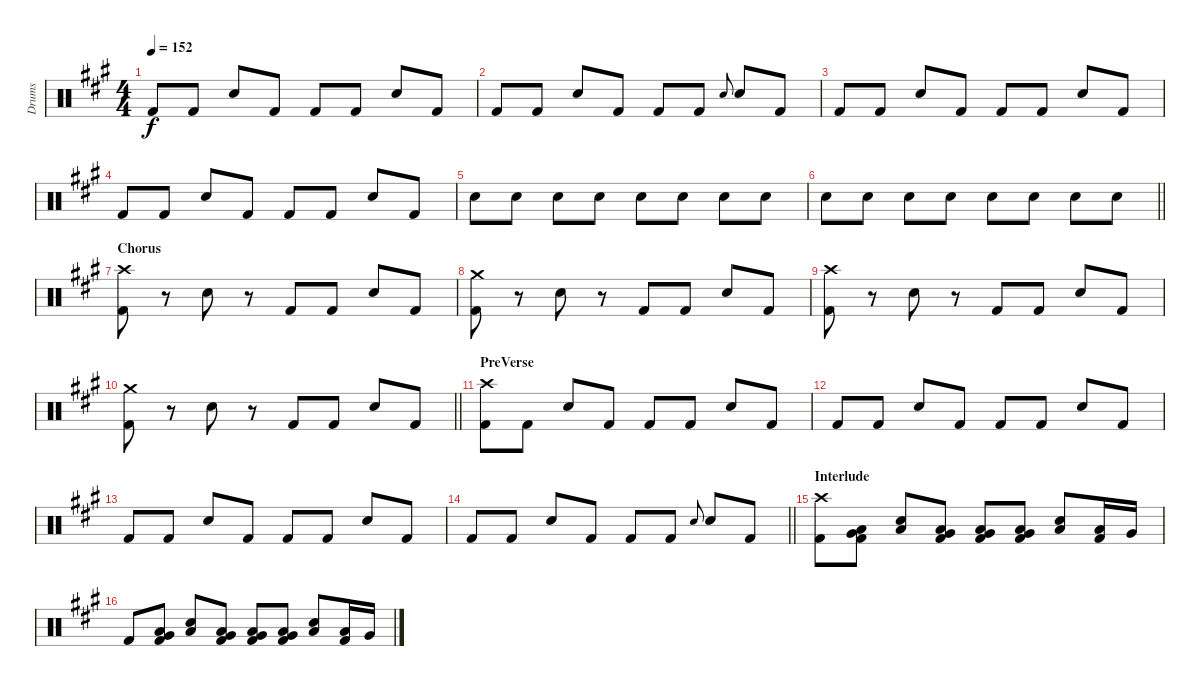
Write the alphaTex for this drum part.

\track ("Drums" "Drums") {instrument percussion}
\staff {score}
\articulation defaults
\ts (4 4)
\tempo 152
\clef neutral
\ks a "Kick (hit) 2".8{dy f} "Kick (hit) 2".8 "Snare (hit) 2".8 "Kick (hit) 2".8 "Kick (hit) 2".8 "Kick (hit) 2".8 "Snare (hit) 2".8 "Kick (hit) 2".8
|
"Kick (hit) 2".8 "Kick (hit) 2".8 "Snare (hit) 2".8 "Kick (hit) 2".8 "Kick (hit) 2".8 "Kick (hit) 2".8 "Snare (hit) 2".8{gr onbeat} "Snare (hit) 2".8 "Kick (hit) 2".8 |
"Kick (hit) 2".8 "Kick (hit) 2".8 "Snare (hit) 2".8 "Kick (hit) 2".8 "Kick (hit) 2".8 "Kick (hit) 2".8 "Snare (hit) 2".8 "Kick (hit) 2".8 |
"Kick (hit) 2".8 "Kick (hit) 2".8 "Snare (hit) 2".8 "Kick (hit) 2".8 "Kick (hit) 2".8 "Kick (hit) 2".8 "Snare (hit) 2".8 "Kick (hit) 2".8 |
"Snare (hit) 2".8 "Snare (hit) 2".8 "Snare (hit) 2".8 "Snare (hit) 2".8 "Snare (hit) 2".8 "Snare (hit) 2".8 "Snare (hit) 2".8 "Snare (hit) 2".8 |
\barLineRight lightlight "Snare (hit) 2".8 "Snare (hit) 2".8 "Snare (hit) 2".8 "Snare (hit) 2".8 "Snare (hit) 2".8 "Snare (hit) 2".8 "Snare (hit) 2".8 "Snare (hit) 2".8
|
\section ("" "Chorus")
("Crash high (hit)" "Kick (hit) 2").8 r.8 "Snare (hit) 2".8 r.8 "Kick (hit) 2".8 "Kick (hit) 2".8 "Snare (hit) 2".8 "Kick (hit) 2".8 |
("Crash medium (hit)" "Kick (hit) 2").8 r.8 "Snare (hit) 2".8 r.8 "Kick (hit) 2".8 "Kick (hit) 2".8 "Snare (hit) 2".8 "Kick (hit) 2".8 |
("Crash high (hit)" "Kick (hit) 2").8 r.8 "Snare (hit) 2".8 r.8 "Kick (hit) 2".8 "Kick (hit) 2".8 "Snare (hit) 2".8 "Kick (hit) 2".8 |
\barLineRight lightlight
("Crash medium (hit)" "Kick (hit) 2").8 r.8 "Snare (hit) 2".8 r.8 "Kick (hit) 2".8 "Kick (hit) 2".8 "Snare (hit) 2".8 "Kick (hit) 2".8 |
\section ("" "PreVerse")
("Crash high (hit)" "Kick (hit) 2").8 "Kick (hit) 2".8 "Snare (hit) 2".8 "Kick (hit) 2".8 "Kick (hit) 2".8 "Kick (hit) 2".8 "Snare (hit) 2".8 "Kick (hit) 2".8 |
"Kick (hit) 2".8 "Kick (hit) 2".8 "Snare (hit) 2".8 "Kick (hit) 2".8 "Kick (hit) 2".8 "Kick (hit) 2".8 "Snare (hit) 2".8 "Kick (hit) 2".8 |
"Kick (hit) 2".8 "Kick (hit) 2".8 "Snare (hit) 2".8 "Kick (hit) 2".8 "Kick (hit) 2".8 "Kick (hit) 2".8 "Snare (hit) 2".8 "Kick (hit) 2".8 |
\barLineRight lightlight "Kick (hit) 2".8 "Kick (hit) 2".8 "Snare (hit) 2".8 "Kick (hit) 2".8 "Kick (hit) 2".8 "Kick (hit) 2".8 "Snare (hit) 2".8{gr onbeat} "Snare (hit) 2".8 "Kick (hit) 2".8
|
\section ("" "Interlude")
("Crash high (hit)" "Kick (hit) 2").8 ("Very Low Tom (hit)" "Low Floor Tom (hit)" "Kick (hit) 2").8 ("Snare (hit) 2" "Low Tom (hit)").8 ("Very Low Tom (hit)" "Low Floor Tom (hit)" "Kick (hit) 2").8 ("Very Low Tom (hit)" "Low Floor Tom (hit)" "Kick (hit) 2").8 ("Very Low Tom (hit)" "Low Floor Tom (hit)" "Kick (hit) 2").8 ("Snare (hit) 2" "Low Tom (hit)").8 ("Low Floor Tom (hit)" "Kick (hit) 2").16 "Very Low Tom (hit)".16 |
"Kick (hit) 2".8 ("Very Low Tom (hit)" "Low Floor Tom (hit)" "Kick (hit) 2").8 ("Snare (hit) 2" "Low Tom (hit)").8 ("Very Low Tom (hit)" "Low Floor Tom (hit)" "Kick (hit) 2").8 ("Very Low Tom (hit)" "Low Floor Tom (hit)" "Kick (hit) 2").8 ("Very Low Tom (hit)" "Low Floor Tom (hit)" "Kick (hit) 2").8 ("Snare (hit) 2" "Low Tom (hit)").8 ("Low Floor Tom (hit)" "Kick (hit) 2").16 "Very Low Tom (hit)".16
